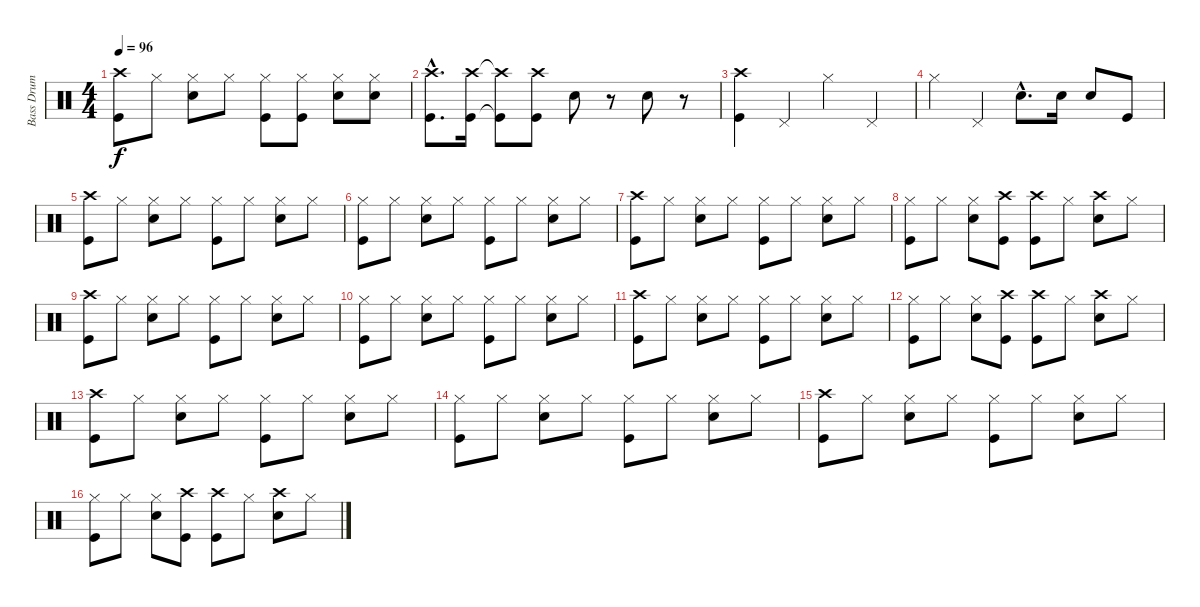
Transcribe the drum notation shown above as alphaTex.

\track ("Bass Drum" "Bass Drum") {instrument percussion}
\staff {score}
\articulation defaults
\ts (4 4)
\tempo 96
\clef neutral
\ks c
("Crash high (hit)" "Kick (hit)").8{dy f} "Hi-Hat (closed)".8 ("Hi-Hat (closed)" "Electric Snare (hit)").8 "Hi-Hat (closed)".8 ("Hi-Hat (closed)" "Kick (hit)").8 ("Hi-Hat (closed)" "Kick (hit)").8 ("Hi-Hat (closed)" "Electric Snare (hit)").8 ("Hi-Hat (closed)" "Electric Snare (hit)").8 |
("Crash high (hit)"{hac} "Kick (hit)"{hac}).8{d} ("Crash high (hit)" "Kick (hit)").16 ("Crash high (hit)"{t} "Kick (hit)"{t}).8 ("Crash high (hit)" "Kick (hit)").8 "Electric Snare (hit)".8 r.8 "Electric Snare (hit)".8 r.8 |
("Crash high (hit)" "Kick (hit)").4 "Pedal Hi-Hat (hit)".4 "Hi-Hat (closed)".4 "Pedal Hi-Hat (hit)".4 |
"Hi-Hat (closed)".4 "Pedal Hi-Hat (hit)".4 "Electric Snare (hit)"{hac}.8{d} "Electric Snare (hit)".16 "Electric Snare (hit)".8 "Kick (hit)".8 |
("Crash high (hit)" "Kick (hit)").8 "Hi-Hat (closed)".8 ("Hi-Hat (closed)" "Electric Snare (hit)").8 "Hi-Hat (closed)".8 ("Hi-Hat (closed)" "Kick (hit)").8 "Hi-Hat (closed)".8 ("Hi-Hat (closed)" "Electric Snare (hit)").8 "Hi-Hat (closed)".8 |
("Hi-Hat (closed)" "Kick (hit)").8 "Hi-Hat (closed)".8 ("Hi-Hat (closed)" "Electric Snare (hit)").8 "Hi-Hat (closed)".8 ("Hi-Hat (closed)" "Kick (hit)").8 "Hi-Hat (closed)".8 ("Hi-Hat (closed)" "Electric Snare (hit)").8 "Hi-Hat (closed)".8 |
("Crash high (hit)" "Kick (hit)").8 "Hi-Hat (closed)".8 ("Hi-Hat (closed)" "Electric Snare (hit)").8 "Hi-Hat (closed)".8 ("Hi-Hat (closed)" "Kick (hit)").8 "Hi-Hat (closed)".8 ("Hi-Hat (closed)" "Electric Snare (hit)").8 "Hi-Hat (closed)".8 |
("Hi-Hat (closed)" "Kick (hit)").8 "Hi-Hat (closed)".8 ("Hi-Hat (closed)" "Electric Snare (hit)").8 ("Crash high (hit)" "Kick (hit)").8 ("Crash high (hit)" "Kick (hit)").8 "Hi-Hat (closed)".8 ("Crash high (hit)" "Electric Snare (hit)").8 "Hi-Hat (closed)".8 |
("Crash high (hit)" "Kick (hit)").8 "Hi-Hat (closed)".8 ("Hi-Hat (closed)" "Electric Snare (hit)").8 "Hi-Hat (closed)".8 ("Hi-Hat (closed)" "Kick (hit)").8 "Hi-Hat (closed)".8 ("Hi-Hat (closed)" "Electric Snare (hit)").8 "Hi-Hat (closed)".8 |
("Hi-Hat (closed)" "Kick (hit)").8 "Hi-Hat (closed)".8 ("Hi-Hat (closed)" "Electric Snare (hit)").8 "Hi-Hat (closed)".8 ("Hi-Hat (closed)" "Kick (hit)").8 "Hi-Hat (closed)".8 ("Hi-Hat (closed)" "Electric Snare (hit)").8 "Hi-Hat (closed)".8 |
("Crash high (hit)" "Kick (hit)").8 "Hi-Hat (closed)".8 ("Hi-Hat (closed)" "Electric Snare (hit)").8 "Hi-Hat (closed)".8 ("Hi-Hat (closed)" "Kick (hit)").8 "Hi-Hat (closed)".8 ("Hi-Hat (closed)" "Electric Snare (hit)").8 "Hi-Hat (closed)".8 |
("Hi-Hat (closed)" "Kick (hit)").8 "Hi-Hat (closed)".8 ("Hi-Hat (closed)" "Electric Snare (hit)").8 ("Crash high (hit)" "Kick (hit)").8 ("Crash high (hit)" "Kick (hit)").8 "Hi-Hat (closed)".8 ("Crash high (hit)" "Electric Snare (hit)").8 "Hi-Hat (closed)".8 |
("Crash high (hit)" "Kick (hit)").8 "Hi-Hat (closed)".8 ("Hi-Hat (closed)" "Electric Snare (hit)").8 "Hi-Hat (closed)".8 ("Hi-Hat (closed)" "Kick (hit)").8 "Hi-Hat (closed)".8 ("Hi-Hat (closed)" "Electric Snare (hit)").8 "Hi-Hat (closed)".8 |
("Hi-Hat (closed)" "Kick (hit)").8 "Hi-Hat (closed)".8 ("Hi-Hat (closed)" "Electric Snare (hit)").8 "Hi-Hat (closed)".8 ("Hi-Hat (closed)" "Kick (hit)").8 "Hi-Hat (closed)".8 ("Hi-Hat (closed)" "Electric Snare (hit)").8 "Hi-Hat (closed)".8 |
("Crash high (hit)" "Kick (hit)").8 "Hi-Hat (closed)".8 ("Hi-Hat (closed)" "Electric Snare (hit)").8 "Hi-Hat (closed)".8 ("Hi-Hat (closed)" "Kick (hit)").8 "Hi-Hat (closed)".8 ("Hi-Hat (closed)" "Electric Snare (hit)").8 "Hi-Hat (closed)".8 |
("Hi-Hat (closed)" "Kick (hit)").8 "Hi-Hat (closed)".8 ("Hi-Hat (closed)" "Electric Snare (hit)").8 ("Crash high (hit)" "Kick (hit)").8 ("Crash high (hit)" "Kick (hit)").8 "Hi-Hat (closed)".8 ("Crash high (hit)" "Electric Snare (hit)").8 "Hi-Hat (closed)".8
